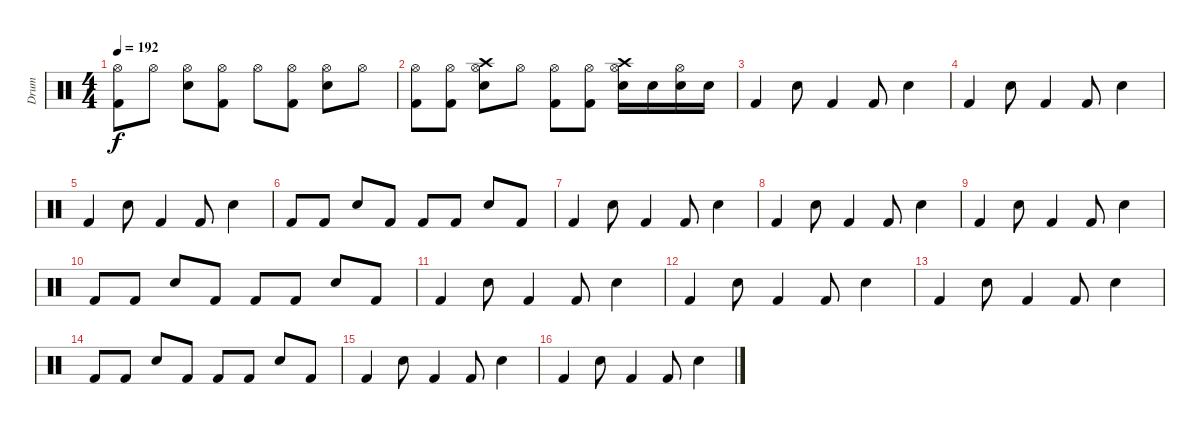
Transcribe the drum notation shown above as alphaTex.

\track ("Drum" "Drum") {instrument percussion}
\staff {score}
\articulation defaults
\ts (4 4)
\tempo 192
\clef neutral
\ks c
("Kick (hit) 2" "Hi-Hat (open)").8{dy f} "Hi-Hat (open)".8 ("Electric Snare (hit)" "Hi-Hat (open)").8 ("Kick (hit) 2" "Hi-Hat (open)").8 "Hi-Hat (open)".8 ("Kick (hit) 2" "Hi-Hat (open)").8 ("Electric Snare (hit)" "Hi-Hat (open)").8 "Hi-Hat (open)".8 |
("Kick (hit) 2" "Hi-Hat (open)").8 ("Kick (hit) 2" "Hi-Hat (open)").8 ("Crash high (hit)" "Electric Snare (hit)" "Hi-Hat (open)").8 "Hi-Hat (open)".8 ("Kick (hit) 2" "Hi-Hat (open)").8 ("Kick (hit) 2" "Hi-Hat (open)").8 ("Crash high (hit)" "Electric Snare (hit)" "Hi-Hat (open)").16 "Electric Snare (hit)".16 ("Electric Snare (hit)" "Hi-Hat (open)").16 "Electric Snare (hit)".16 |
"Kick (hit) 2".4 "Electric Snare (hit)".8 "Kick (hit) 2".4 "Kick (hit) 2".8 "Electric Snare (hit)".4 |
"Kick (hit) 2".4 "Electric Snare (hit)".8 "Kick (hit) 2".4 "Kick (hit) 2".8 "Electric Snare (hit)".4 |
"Kick (hit) 2".4 "Electric Snare (hit)".8 "Kick (hit) 2".4 "Kick (hit) 2".8 "Electric Snare (hit)".4 |
"Kick (hit) 2".8 "Kick (hit) 2".8 "Electric Snare (hit)".8 "Kick (hit) 2".8 "Kick (hit) 2".8 "Kick (hit) 2".8 "Electric Snare (hit)".8 "Kick (hit) 2".8 |
"Kick (hit) 2".4 "Electric Snare (hit)".8 "Kick (hit) 2".4 "Kick (hit) 2".8 "Electric Snare (hit)".4 |
"Kick (hit) 2".4 "Electric Snare (hit)".8 "Kick (hit) 2".4 "Kick (hit) 2".8 "Electric Snare (hit)".4 |
"Kick (hit) 2".4 "Electric Snare (hit)".8 "Kick (hit) 2".4 "Kick (hit) 2".8 "Electric Snare (hit)".4 |
"Kick (hit) 2".8 "Kick (hit) 2".8 "Electric Snare (hit)".8 "Kick (hit) 2".8 "Kick (hit) 2".8 "Kick (hit) 2".8 "Electric Snare (hit)".8 "Kick (hit) 2".8 |
"Kick (hit) 2".4 "Electric Snare (hit)".8 "Kick (hit) 2".4 "Kick (hit) 2".8 "Electric Snare (hit)".4 |
"Kick (hit) 2".4 "Electric Snare (hit)".8 "Kick (hit) 2".4 "Kick (hit) 2".8 "Electric Snare (hit)".4 |
"Kick (hit) 2".4 "Electric Snare (hit)".8 "Kick (hit) 2".4 "Kick (hit) 2".8 "Electric Snare (hit)".4 |
"Kick (hit) 2".8 "Kick (hit) 2".8 "Electric Snare (hit)".8 "Kick (hit) 2".8 "Kick (hit) 2".8 "Kick (hit) 2".8 "Electric Snare (hit)".8 "Kick (hit) 2".8 |
"Kick (hit) 2".4 "Electric Snare (hit)".8 "Kick (hit) 2".4 "Kick (hit) 2".8 "Electric Snare (hit)".4 |
"Kick (hit) 2".4 "Electric Snare (hit)".8 "Kick (hit) 2".4 "Kick (hit) 2".8 "Electric Snare (hit)".4
